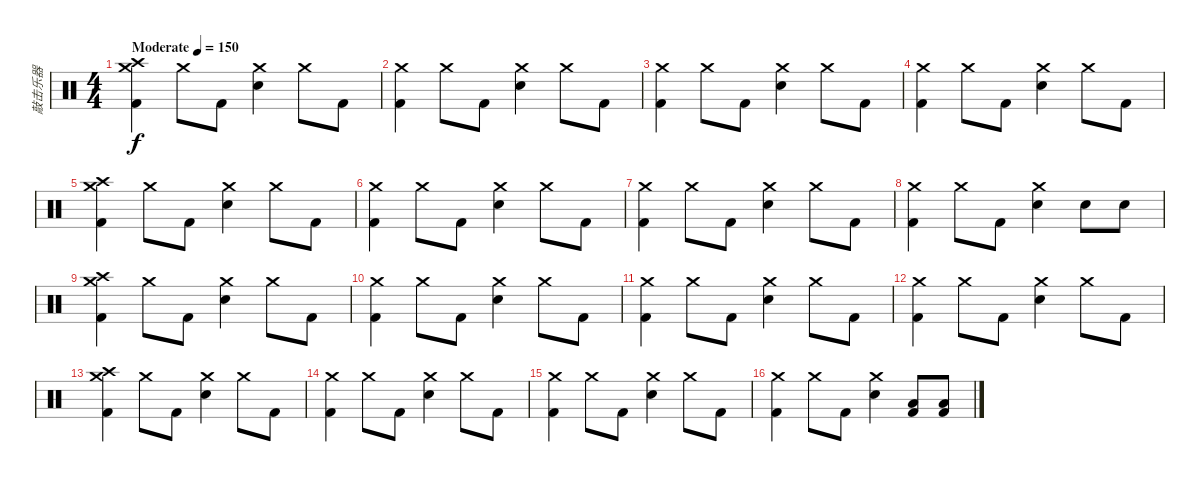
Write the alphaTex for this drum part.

\track ("敲击乐器" "敲击乐器") {instrument percussion}
\staff {score}
\articulation defaults
\ts (4 4)
\tempo (150 "Moderate")
\clef neutral
\ks c
("Crash medium (hit)" "Crash high (hit)" "Kick (hit) 2").4{dy f} "Crash medium (hit)".8 "Kick (hit) 2".8 ("Crash medium (hit)" "Snare (hit) 2").4 "Crash medium (hit)".8 "Kick (hit) 2".8 |
("Crash medium (hit)" "Kick (hit) 2").4 "Crash medium (hit)".8 "Kick (hit) 2".8 ("Crash medium (hit)" "Snare (hit) 2").4 "Crash medium (hit)".8 "Kick (hit) 2".8 |
("Crash medium (hit)" "Kick (hit) 2").4 "Crash medium (hit)".8 "Kick (hit) 2".8 ("Crash medium (hit)" "Snare (hit) 2").4 "Crash medium (hit)".8 "Kick (hit) 2".8 |
("Crash medium (hit)" "Kick (hit) 2").4 "Crash medium (hit)".8 "Kick (hit) 2".8 ("Crash medium (hit)" "Snare (hit) 2").4 "Crash medium (hit)".8 "Kick (hit) 2".8 |
("Crash medium (hit)" "Crash high (hit)" "Kick (hit) 2").4 "Crash medium (hit)".8 "Kick (hit) 2".8 ("Crash medium (hit)" "Snare (hit) 2").4 "Crash medium (hit)".8 "Kick (hit) 2".8 |
("Crash medium (hit)" "Kick (hit) 2").4 "Crash medium (hit)".8 "Kick (hit) 2".8 ("Crash medium (hit)" "Snare (hit) 2").4 "Crash medium (hit)".8 "Kick (hit) 2".8 |
("Crash medium (hit)" "Kick (hit) 2").4 "Crash medium (hit)".8 "Kick (hit) 2".8 ("Crash medium (hit)" "Snare (hit) 2").4 "Crash medium (hit)".8 "Kick (hit) 2".8 |
("Crash medium (hit)" "Kick (hit) 2").4 "Crash medium (hit)".8 "Kick (hit) 2".8 ("Crash medium (hit)" "Snare (hit) 2").4 "Snare (hit) 2".8 "Snare (hit) 2".8 |
("Crash medium (hit)" "Crash high (hit)" "Kick (hit) 2").4 "Crash medium (hit)".8 "Kick (hit) 2".8 ("Crash medium (hit)" "Snare (hit) 2").4 "Crash medium (hit)".8 "Kick (hit) 2".8 |
("Crash medium (hit)" "Kick (hit) 2").4 "Crash medium (hit)".8 "Kick (hit) 2".8 ("Crash medium (hit)" "Snare (hit) 2").4 "Crash medium (hit)".8 "Kick (hit) 2".8 |
("Crash medium (hit)" "Kick (hit) 2").4 "Crash medium (hit)".8 "Kick (hit) 2".8 ("Crash medium (hit)" "Snare (hit) 2").4 "Crash medium (hit)".8 "Kick (hit) 2".8 |
("Crash medium (hit)" "Kick (hit) 2").4 "Crash medium (hit)".8 "Kick (hit) 2".8 ("Crash medium (hit)" "Snare (hit) 2").4 "Crash medium (hit)".8 "Kick (hit) 2".8 |
("Crash medium (hit)" "Crash high (hit)" "Kick (hit) 2").4 "Crash medium (hit)".8 "Kick (hit) 2".8 ("Crash medium (hit)" "Snare (hit) 2").4 "Crash medium (hit)".8 "Kick (hit) 2".8 |
("Crash medium (hit)" "Kick (hit) 2").4 "Crash medium (hit)".8 "Kick (hit) 2".8 ("Crash medium (hit)" "Snare (hit) 2").4 "Crash medium (hit)".8 "Kick (hit) 2".8 |
("Crash medium (hit)" "Kick (hit) 2").4 "Crash medium (hit)".8 "Kick (hit) 2".8 ("Crash medium (hit)" "Snare (hit) 2").4 "Crash medium (hit)".8 "Kick (hit) 2".8 |
("Crash medium (hit)" "Kick (hit) 2").4 "Crash medium (hit)".8 "Kick (hit) 2".8 ("Crash medium (hit)" "Snare (hit) 2").4 ("Low Tom (hit)" "Kick (hit) 2").8 ("Low Tom (hit)" "Kick (hit) 2").8
